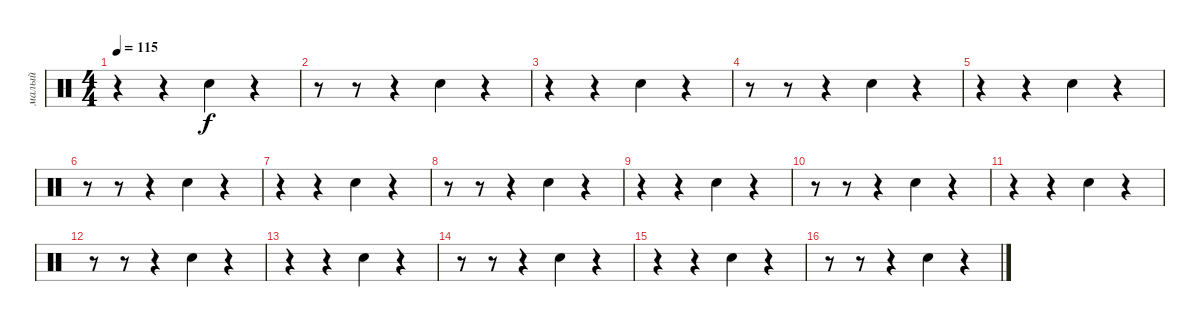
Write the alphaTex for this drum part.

\track ("малый" "малый") {mute instrument percussion}
\staff {score}
\articulation defaults
\ts (4 4)
\tempo 115
\clef neutral
\ks c
r.4{dy f} r.4 "Electric Snare (hit)".4 r.4 |
r.8 r.8 r.4 "Electric Snare (hit)".4 r.4 |
r.4 r.4 "Electric Snare (hit)".4 r.4 |
r.8 r.8 r.4 "Electric Snare (hit)".4 r.4 |
r.4 r.4 "Electric Snare (hit)".4 r.4 |
r.8 r.8 r.4 "Electric Snare (hit)".4 r.4 |
r.4 r.4 "Electric Snare (hit)".4 r.4 |
r.8 r.8 r.4 "Electric Snare (hit)".4 r.4 |
r.4 r.4 "Electric Snare (hit)".4 r.4 |
r.8 r.8 r.4 "Electric Snare (hit)".4 r.4 |
r.4 r.4 "Electric Snare (hit)".4 r.4 |
r.8 r.8 r.4 "Electric Snare (hit)".4 r.4 |
r.4 r.4 "Electric Snare (hit)".4 r.4 |
r.8 r.8 r.4 "Electric Snare (hit)".4 r.4 |
r.4 r.4 "Electric Snare (hit)".4 r.4 |
r.8 r.8 r.4 "Electric Snare (hit)".4 r.4
